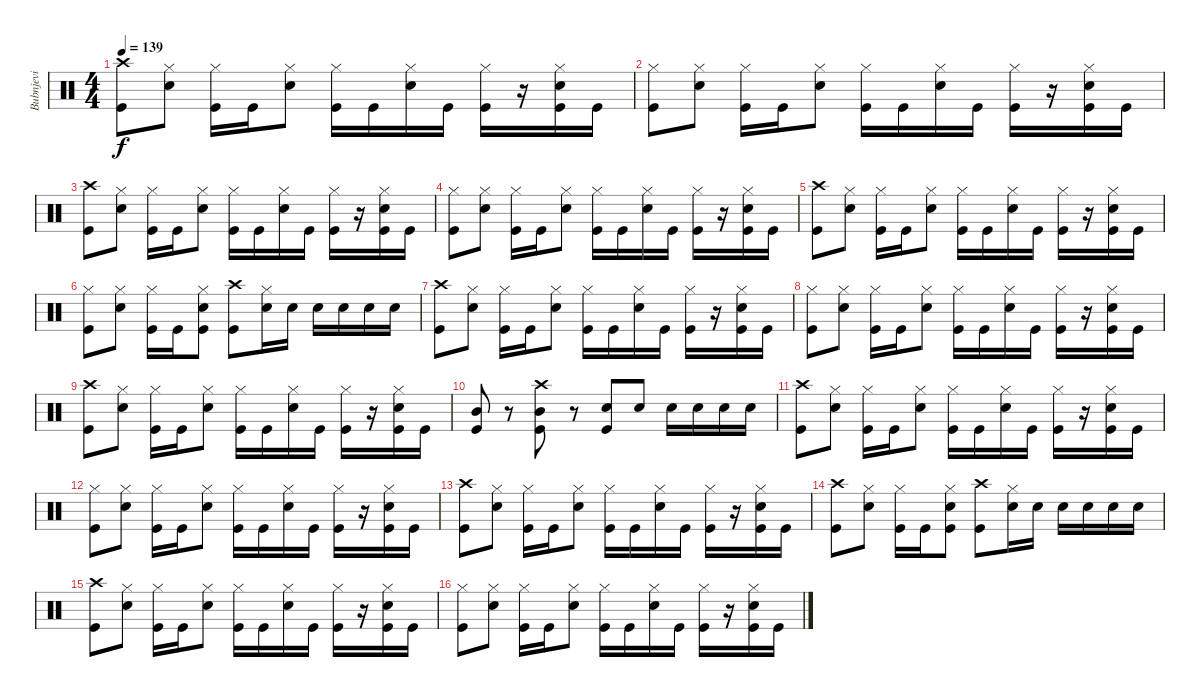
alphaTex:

\track ("Bubnjevi" "Bubnjevi") {instrument percussion}
\staff {score}
\articulation defaults
\ts (4 4)
\tempo 139
\clef neutral
\ks c
("Crash high (hit)" "Kick (hit)").8{dy f} ("Hi-Hat (closed)" "Snare (hit) 2").8 ("Hi-Hat (closed)" "Kick (hit)").16 "Kick (hit)".16 ("Hi-Hat (closed)" "Snare (hit) 2").8 ("Hi-Hat (closed)" "Kick (hit)").16 "Kick (hit)".16 ("Hi-Hat (closed)" "Snare (hit) 2").16 "Kick (hit)".16 ("Hi-Hat (closed)" "Kick (hit)").16 r.16 ("Hi-Hat (closed)" "Snare (hit) 2" "Kick (hit)").16 "Kick (hit)".16 |
("Hi-Hat (closed)" "Kick (hit)").8 ("Hi-Hat (closed)" "Snare (hit) 2").8 ("Hi-Hat (closed)" "Kick (hit)").16 "Kick (hit)".16 ("Hi-Hat (closed)" "Snare (hit) 2").8 ("Hi-Hat (closed)" "Kick (hit)").16 "Kick (hit)".16 ("Hi-Hat (closed)" "Snare (hit) 2").16 "Kick (hit)".16 ("Hi-Hat (closed)" "Kick (hit)").16 r.16 ("Hi-Hat (closed)" "Snare (hit) 2" "Kick (hit)").16 "Kick (hit)".16 |
("Crash high (hit)" "Kick (hit)").8 ("Hi-Hat (closed)" "Snare (hit) 2").8 ("Hi-Hat (closed)" "Kick (hit)").16 "Kick (hit)".16 ("Hi-Hat (closed)" "Snare (hit) 2").8 ("Hi-Hat (closed)" "Kick (hit)").16 "Kick (hit)".16 ("Hi-Hat (closed)" "Snare (hit) 2").16 "Kick (hit)".16 ("Hi-Hat (closed)" "Kick (hit)").16 r.16 ("Hi-Hat (closed)" "Snare (hit) 2" "Kick (hit)").16 "Kick (hit)".16 |
("Hi-Hat (closed)" "Kick (hit)").8 ("Hi-Hat (closed)" "Snare (hit) 2").8 ("Hi-Hat (closed)" "Kick (hit)").16 "Kick (hit)".16 ("Hi-Hat (closed)" "Snare (hit) 2").8 ("Hi-Hat (closed)" "Kick (hit)").16 "Kick (hit)".16 ("Hi-Hat (closed)" "Snare (hit) 2").16 "Kick (hit)".16 ("Hi-Hat (closed)" "Kick (hit)").16 r.16 ("Hi-Hat (closed)" "Snare (hit) 2" "Kick (hit)").16 "Kick (hit)".16 |
("Crash high (hit)" "Kick (hit)").8 ("Hi-Hat (closed)" "Snare (hit) 2").8 ("Hi-Hat (closed)" "Kick (hit)").16 "Kick (hit)".16 ("Hi-Hat (closed)" "Snare (hit) 2").8 ("Hi-Hat (closed)" "Kick (hit)").16 "Kick (hit)".16 ("Hi-Hat (closed)" "Snare (hit) 2").16 "Kick (hit)".16 ("Hi-Hat (closed)" "Kick (hit)").16 r.16 ("Hi-Hat (closed)" "Snare (hit) 2" "Kick (hit)").16 "Kick (hit)".16 |
("Hi-Hat (closed)" "Kick (hit)").8 ("Hi-Hat (closed)" "Snare (hit) 2").8 ("Hi-Hat (closed)" "Kick (hit)").16 "Kick (hit)".16 ("Hi-Hat (closed)" "Snare (hit) 2" "Kick (hit)").8 ("Crash high (hit)" "Kick (hit)").8 ("Hi-Hat (closed)" "Snare (hit) 2").16 "Snare (hit) 2".16 "Snare (hit) 2".16 "Snare (hit) 2".16 "Snare (hit) 2".16 "Snare (hit) 2".16 |
("Crash high (hit)" "Kick (hit)").8 ("Hi-Hat (closed)" "Snare (hit) 2").8 ("Hi-Hat (closed)" "Kick (hit)").16 "Kick (hit)".16 ("Hi-Hat (closed)" "Snare (hit) 2").8 ("Hi-Hat (closed)" "Kick (hit)").16 "Kick (hit)".16 ("Hi-Hat (closed)" "Snare (hit) 2").16 "Kick (hit)".16 ("Hi-Hat (closed)" "Kick (hit)").16 r.16 ("Hi-Hat (closed)" "Snare (hit) 2" "Kick (hit)").16 "Kick (hit)".16 |
("Hi-Hat (closed)" "Kick (hit)").8 ("Hi-Hat (closed)" "Snare (hit) 2").8 ("Hi-Hat (closed)" "Kick (hit)").16 "Kick (hit)".16 ("Hi-Hat (closed)" "Snare (hit) 2").8 ("Hi-Hat (closed)" "Kick (hit)").16 "Kick (hit)".16 ("Hi-Hat (closed)" "Snare (hit) 2").16 "Kick (hit)".16 ("Hi-Hat (closed)" "Kick (hit)").16 r.16 ("Hi-Hat (closed)" "Snare (hit) 2" "Kick (hit)").16 "Kick (hit)".16 |
("Crash high (hit)" "Kick (hit)").8 ("Hi-Hat (closed)" "Snare (hit) 2").8 ("Hi-Hat (closed)" "Kick (hit)").16 "Kick (hit)".16 ("Hi-Hat (closed)" "Snare (hit) 2").8 ("Hi-Hat (closed)" "Kick (hit)").16 "Kick (hit)".16 ("Hi-Hat (closed)" "Snare (hit) 2").16 "Kick (hit)".16 ("Hi-Hat (closed)" "Kick (hit)").16 r.16 ("Hi-Hat (closed)" "Snare (hit) 2" "Kick (hit)").16 "Kick (hit)".16 |
("Mid Tom (hit)" "Kick (hit)").8 r.8 ("Crash high (hit)" "Mid Tom (hit)" "Kick (hit)").8 r.8 ("Snare (hit) 2" "Kick (hit)").8 "Snare (hit) 2".8 "Snare (hit) 2".16 "Snare (hit) 2".16 "Snare (hit) 2".16 "Snare (hit) 2".16 |
("Crash high (hit)" "Kick (hit)").8 ("Hi-Hat (closed)" "Snare (hit) 2").8 ("Hi-Hat (closed)" "Kick (hit)").16 "Kick (hit)".16 ("Hi-Hat (closed)" "Snare (hit) 2").8 ("Hi-Hat (closed)" "Kick (hit)").16 "Kick (hit)".16 ("Hi-Hat (closed)" "Snare (hit) 2").16 "Kick (hit)".16 ("Hi-Hat (closed)" "Kick (hit)").16 r.16 ("Hi-Hat (closed)" "Snare (hit) 2" "Kick (hit)").16 "Kick (hit)".16 |
("Hi-Hat (closed)" "Kick (hit)").8 ("Hi-Hat (closed)" "Snare (hit) 2").8 ("Hi-Hat (closed)" "Kick (hit)").16 "Kick (hit)".16 ("Hi-Hat (closed)" "Snare (hit) 2").8 ("Hi-Hat (closed)" "Kick (hit)").16 "Kick (hit)".16 ("Hi-Hat (closed)" "Snare (hit) 2").16 "Kick (hit)".16 ("Hi-Hat (closed)" "Kick (hit)").16 r.16 ("Hi-Hat (closed)" "Snare (hit) 2" "Kick (hit)").16 "Kick (hit)".16 |
("Crash high (hit)" "Kick (hit)").8 ("Hi-Hat (closed)" "Snare (hit) 2").8 ("Hi-Hat (closed)" "Kick (hit)").16 "Kick (hit)".16 ("Hi-Hat (closed)" "Snare (hit) 2").8 ("Hi-Hat (closed)" "Kick (hit)").16 "Kick (hit)".16 ("Hi-Hat (closed)" "Snare (hit) 2").16 "Kick (hit)".16 ("Hi-Hat (closed)" "Kick (hit)").16 r.16 ("Hi-Hat (closed)" "Snare (hit) 2" "Kick (hit)").16 "Kick (hit)".16 |
("Crash high (hit)" "Kick (hit)").8 ("Hi-Hat (closed)" "Snare (hit) 2").8 ("Hi-Hat (closed)" "Kick (hit)").16 "Kick (hit)".16 ("Hi-Hat (closed)" "Snare (hit) 2" "Kick (hit)").8 ("Crash high (hit)" "Kick (hit)").8 ("Hi-Hat (closed)" "Snare (hit) 2").16 "Snare (hit) 2".16 "Snare (hit) 2".16 "Snare (hit) 2".16 "Snare (hit) 2".16 "Snare (hit) 2".16 |
("Crash high (hit)" "Kick (hit)").8 ("Hi-Hat (closed)" "Snare (hit) 2").8 ("Hi-Hat (closed)" "Kick (hit)").16 "Kick (hit)".16 ("Hi-Hat (closed)" "Snare (hit) 2").8 ("Hi-Hat (closed)" "Kick (hit)").16 "Kick (hit)".16 ("Hi-Hat (closed)" "Snare (hit) 2").16 "Kick (hit)".16 ("Hi-Hat (closed)" "Kick (hit)").16 r.16 ("Hi-Hat (closed)" "Snare (hit) 2" "Kick (hit)").16 "Kick (hit)".16 |
("Hi-Hat (closed)" "Kick (hit)").8 ("Hi-Hat (closed)" "Snare (hit) 2").8 ("Hi-Hat (closed)" "Kick (hit)").16 "Kick (hit)".16 ("Hi-Hat (closed)" "Snare (hit) 2").8 ("Hi-Hat (closed)" "Kick (hit)").16 "Kick (hit)".16 ("Hi-Hat (closed)" "Snare (hit) 2").16 "Kick (hit)".16 ("Hi-Hat (closed)" "Kick (hit)").16 r.16 ("Hi-Hat (closed)" "Snare (hit) 2" "Kick (hit)").16 "Kick (hit)".16
